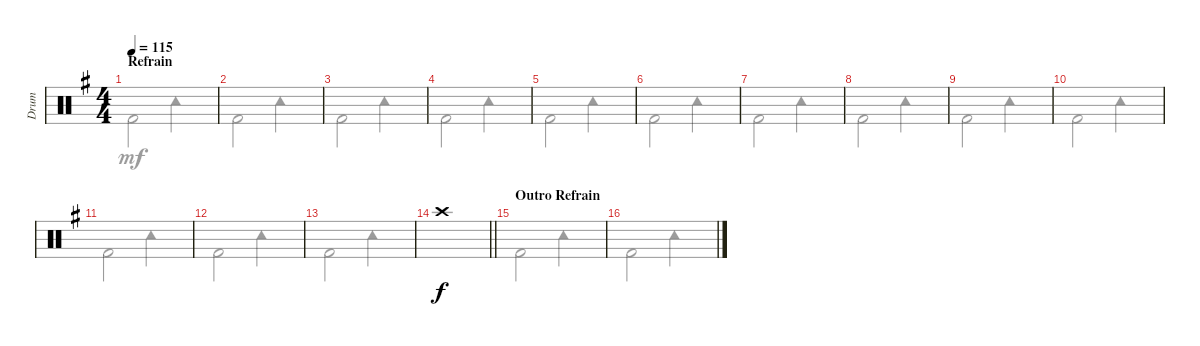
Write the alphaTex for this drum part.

\track ("Drum" "Drum") {instrument percussion}
\staff {score}
\articulation defaults
\voice
\ts (4 4)
\section ("" "Refrain")
\tempo 115
\clef neutral
\ks eminor
|
|
|
|
|
|
|
|
|
|
|
|
|
\barLineRight lightlight "Crash high (hit)".1
|
\section ("" "Outro Refrain")
|
\voice
\clef neutral
\ks eminor "Kick (hit) 2".2{dy mf} "Tambourine (hit)".2
|
"Kick (hit) 2".2 "Tambourine (hit)".2 |
"Kick (hit) 2".2 "Tambourine (hit)".2 |
"Kick (hit) 2".2 "Tambourine (hit)".2 |
"Kick (hit) 2".2 "Tambourine (hit)".2 |
"Kick (hit) 2".2 "Tambourine (hit)".2 |
"Kick (hit) 2".2 "Tambourine (hit)".2 |
"Kick (hit) 2".2 "Tambourine (hit)".2 |
"Kick (hit) 2".2 "Tambourine (hit)".2 |
"Kick (hit) 2".2 "Tambourine (hit)".2 |
"Kick (hit) 2".2 "Tambourine (hit)".2 |
"Kick (hit) 2".2 "Tambourine (hit)".2 |
"Kick (hit) 2".2 "Tambourine (hit)".2 |
\barLineRight lightlight
|
"Kick (hit) 2".2 "Tambourine (hit)".2 |
"Kick (hit) 2".2 "Tambourine (hit)".2
